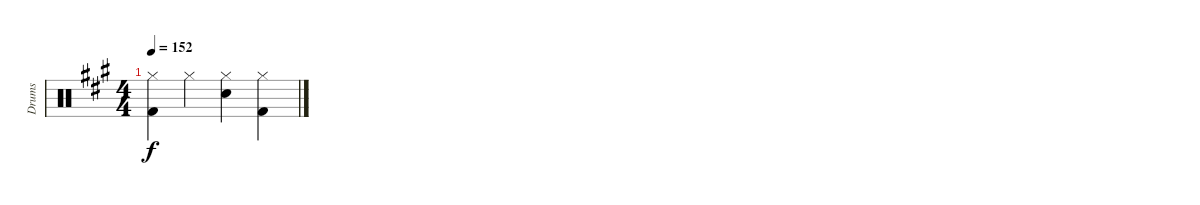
\track ("Drums" "Drums") {instrument percussion}
\staff {score}
\articulation defaults
\ts (4 4)
\tempo 152
\clef neutral
\ks a
("Hi-Hat (closed)" "Kick (hit) 2").4{dy f} "Hi-Hat (closed)".4 ("Hi-Hat (closed)" "Electric Snare (hit)").4 ("Hi-Hat (closed)" "Kick (hit) 2").4
